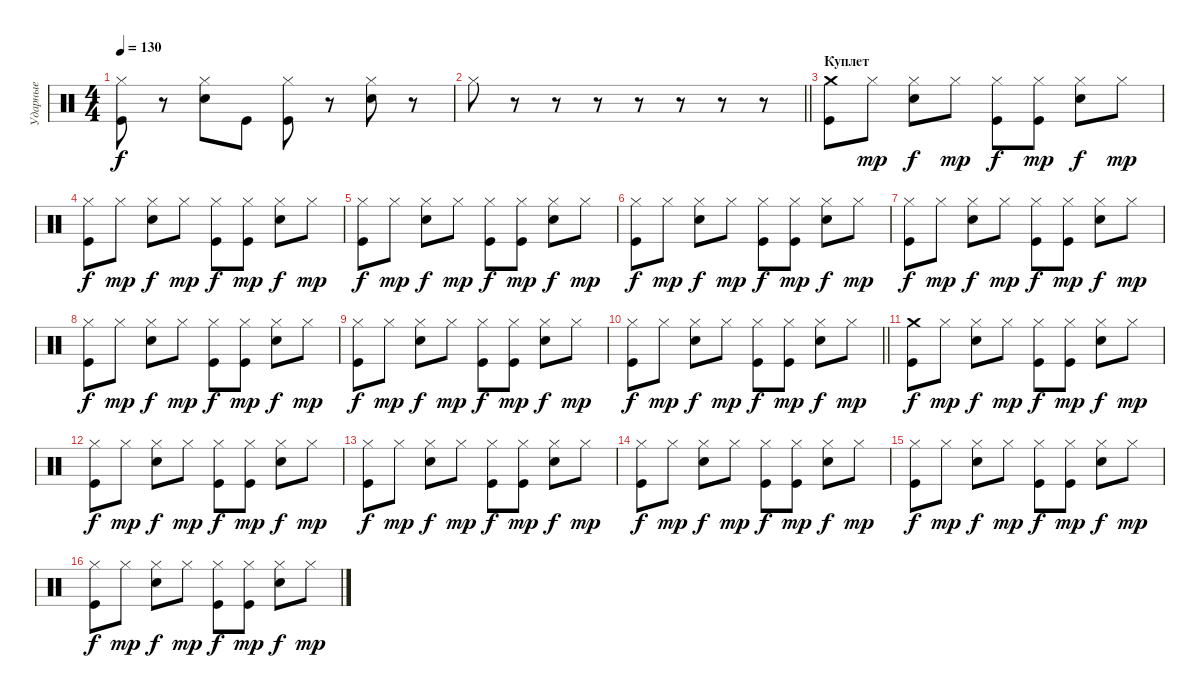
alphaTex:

\track ("Ударные" "Ударные") {instrument percussion}
\staff {score}
\articulation defaults
\ts (4 4)
\tempo 130
\clef neutral
\ks c
("Kick (hit)" "Hi-Hat (closed)").8{dy f} r.8 ("Electric Snare (hit)" "Hi-Hat (closed)").8 "Kick (hit)".8 ("Kick (hit)" "Hi-Hat (closed)").8 r.8 ("Electric Snare (hit)" "Hi-Hat (closed)").8 r.8 |
\barLineRight lightlight "Hi-Hat (closed)".8
r.8 r.8 r.8 r.8 r.8 r.8 r.8 |
\section ("" "Куплет")
("Crash medium (hit)" "Kick (hit)").8 "Hi-Hat (closed)".8{dy mp} ("Hi-Hat (closed)" "Electric Snare (hit)").8{dy f} "Hi-Hat (closed)".8{dy mp} ("Hi-Hat (closed)" "Kick (hit)").8{dy f} ("Hi-Hat (closed)" "Kick (hit)").8{dy mp} ("Hi-Hat (closed)" "Electric Snare (hit)").8{dy f} "Hi-Hat (closed)".8{dy mp} |
("Hi-Hat (closed)" "Kick (hit)").8{dy f} "Hi-Hat (closed)".8{dy mp} ("Hi-Hat (closed)" "Electric Snare (hit)").8{dy f} "Hi-Hat (closed)".8{dy mp} ("Hi-Hat (closed)" "Kick (hit)").8{dy f} ("Hi-Hat (closed)" "Kick (hit)").8{dy mp} ("Hi-Hat (closed)" "Electric Snare (hit)").8{dy f} "Hi-Hat (closed)".8{dy mp} |
("Hi-Hat (closed)" "Kick (hit)").8{dy f} "Hi-Hat (closed)".8{dy mp} ("Hi-Hat (closed)" "Electric Snare (hit)").8{dy f} "Hi-Hat (closed)".8{dy mp} ("Hi-Hat (closed)" "Kick (hit)").8{dy f} ("Hi-Hat (closed)" "Kick (hit)").8{dy mp} ("Hi-Hat (closed)" "Electric Snare (hit)").8{dy f} "Hi-Hat (closed)".8{dy mp} |
("Hi-Hat (closed)" "Kick (hit)").8{dy f} "Hi-Hat (closed)".8{dy mp} ("Hi-Hat (closed)" "Electric Snare (hit)").8{dy f} "Hi-Hat (closed)".8{dy mp} ("Hi-Hat (closed)" "Kick (hit)").8{dy f} ("Hi-Hat (closed)" "Kick (hit)").8{dy mp} ("Hi-Hat (closed)" "Electric Snare (hit)").8{dy f} "Hi-Hat (closed)".8{dy mp} |
("Hi-Hat (closed)" "Kick (hit)").8{dy f} "Hi-Hat (closed)".8{dy mp} ("Hi-Hat (closed)" "Electric Snare (hit)").8{dy f} "Hi-Hat (closed)".8{dy mp} ("Hi-Hat (closed)" "Kick (hit)").8{dy f} ("Hi-Hat (closed)" "Kick (hit)").8{dy mp} ("Hi-Hat (closed)" "Electric Snare (hit)").8{dy f} "Hi-Hat (closed)".8{dy mp} |
("Hi-Hat (closed)" "Kick (hit)").8{dy f} "Hi-Hat (closed)".8{dy mp} ("Hi-Hat (closed)" "Electric Snare (hit)").8{dy f} "Hi-Hat (closed)".8{dy mp} ("Hi-Hat (closed)" "Kick (hit)").8{dy f} ("Hi-Hat (closed)" "Kick (hit)").8{dy mp} ("Hi-Hat (closed)" "Electric Snare (hit)").8{dy f} "Hi-Hat (closed)".8{dy mp} |
("Hi-Hat (closed)" "Kick (hit)").8{dy f} "Hi-Hat (closed)".8{dy mp} ("Hi-Hat (closed)" "Electric Snare (hit)").8{dy f} "Hi-Hat (closed)".8{dy mp} ("Hi-Hat (closed)" "Kick (hit)").8{dy f} ("Hi-Hat (closed)" "Kick (hit)").8{dy mp} ("Hi-Hat (closed)" "Electric Snare (hit)").8{dy f} "Hi-Hat (closed)".8{dy mp} |
\barLineRight lightlight
("Hi-Hat (closed)" "Kick (hit)").8{dy f} "Hi-Hat (closed)".8{dy mp} ("Hi-Hat (closed)" "Electric Snare (hit)").8{dy f} "Hi-Hat (closed)".8{dy mp} ("Hi-Hat (closed)" "Kick (hit)").8{dy f} ("Hi-Hat (closed)" "Kick (hit)").8{dy mp} ("Hi-Hat (closed)" "Electric Snare (hit)").8{dy f} "Hi-Hat (closed)".8{dy mp} |
("Crash medium (hit)" "Kick (hit)").8{dy f} "Hi-Hat (closed)".8{dy mp} ("Hi-Hat (closed)" "Electric Snare (hit)").8{dy f} "Hi-Hat (closed)".8{dy mp} ("Hi-Hat (closed)" "Kick (hit)").8{dy f} ("Hi-Hat (closed)" "Kick (hit)").8{dy mp} ("Hi-Hat (closed)" "Electric Snare (hit)").8{dy f} "Hi-Hat (closed)".8{dy mp} |
("Hi-Hat (closed)" "Kick (hit)").8{dy f} "Hi-Hat (closed)".8{dy mp} ("Hi-Hat (closed)" "Electric Snare (hit)").8{dy f} "Hi-Hat (closed)".8{dy mp} ("Hi-Hat (closed)" "Kick (hit)").8{dy f} ("Hi-Hat (closed)" "Kick (hit)").8{dy mp} ("Hi-Hat (closed)" "Electric Snare (hit)").8{dy f} "Hi-Hat (closed)".8{dy mp} |
("Hi-Hat (closed)" "Kick (hit)").8{dy f} "Hi-Hat (closed)".8{dy mp} ("Hi-Hat (closed)" "Electric Snare (hit)").8{dy f} "Hi-Hat (closed)".8{dy mp} ("Hi-Hat (closed)" "Kick (hit)").8{dy f} ("Hi-Hat (closed)" "Kick (hit)").8{dy mp} ("Hi-Hat (closed)" "Electric Snare (hit)").8{dy f} "Hi-Hat (closed)".8{dy mp} |
("Hi-Hat (closed)" "Kick (hit)").8{dy f} "Hi-Hat (closed)".8{dy mp} ("Hi-Hat (closed)" "Electric Snare (hit)").8{dy f} "Hi-Hat (closed)".8{dy mp} ("Hi-Hat (closed)" "Kick (hit)").8{dy f} ("Hi-Hat (closed)" "Kick (hit)").8{dy mp} ("Hi-Hat (closed)" "Electric Snare (hit)").8{dy f} "Hi-Hat (closed)".8{dy mp} |
("Hi-Hat (closed)" "Kick (hit)").8{dy f} "Hi-Hat (closed)".8{dy mp} ("Hi-Hat (closed)" "Electric Snare (hit)").8{dy f} "Hi-Hat (closed)".8{dy mp} ("Hi-Hat (closed)" "Kick (hit)").8{dy f} ("Hi-Hat (closed)" "Kick (hit)").8{dy mp} ("Hi-Hat (closed)" "Electric Snare (hit)").8{dy f} "Hi-Hat (closed)".8{dy mp} |
("Hi-Hat (closed)" "Kick (hit)").8{dy f} "Hi-Hat (closed)".8{dy mp} ("Hi-Hat (closed)" "Electric Snare (hit)").8{dy f} "Hi-Hat (closed)".8{dy mp} ("Hi-Hat (closed)" "Kick (hit)").8{dy f} ("Hi-Hat (closed)" "Kick (hit)").8{dy mp} ("Hi-Hat (closed)" "Electric Snare (hit)").8{dy f} "Hi-Hat (closed)".8{dy mp}
